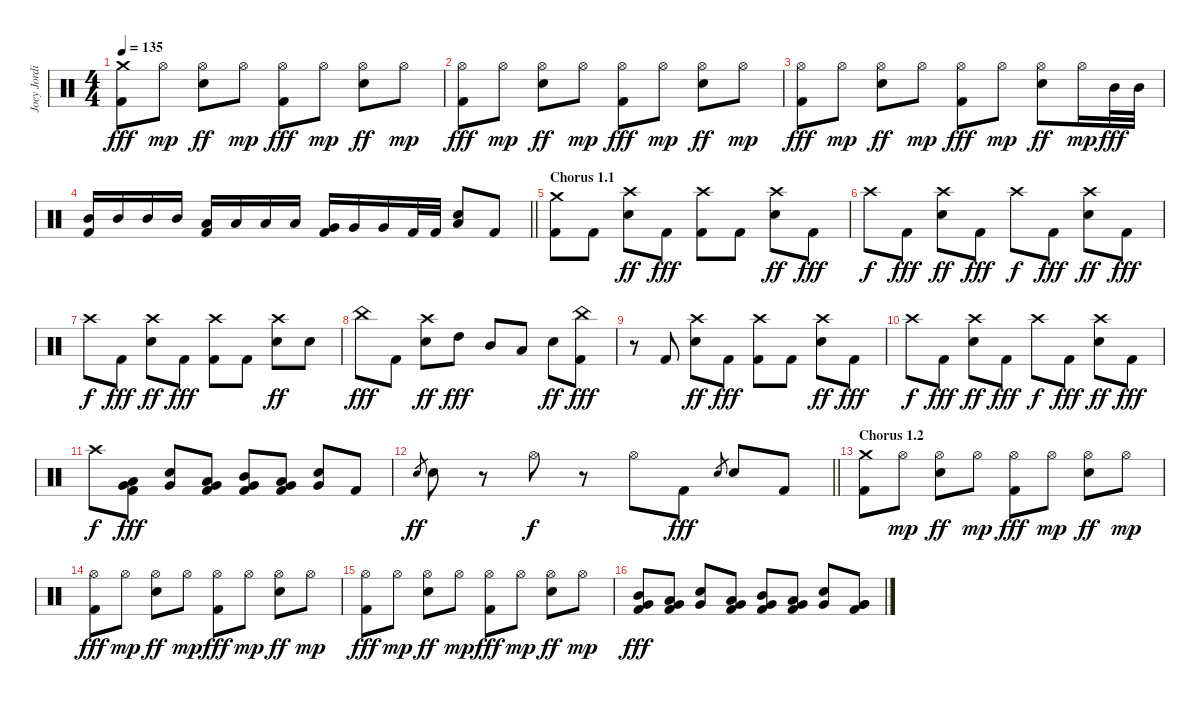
\track ("Joey Jordison" "Joey Jordi") {instrument percussion}
\staff {score}
\articulation defaults
\ts (4 4)
\tempo 135
\clef neutral
\ks c
("Crash medium (hit)" "Kick (hit) 2").8{dy fff} "Hi-Hat (open)".8{dy mp} ("Hi-Hat (open)" "Electric Snare (hit)").8{dy ff} "Hi-Hat (open)".8{dy mp} ("Hi-Hat (open)" "Kick (hit) 2").8{dy fff} "Hi-Hat (open)".8{dy mp} ("Hi-Hat (open)" "Electric Snare (hit)").8{dy ff} "Hi-Hat (open)".8{dy mp} |
("Hi-Hat (open)" "Kick (hit) 2").8{dy fff} "Hi-Hat (open)".8{dy mp} ("Hi-Hat (open)" "Electric Snare (hit)").8{dy ff} "Hi-Hat (open)".8{dy mp} ("Hi-Hat (open)" "Kick (hit) 2").8{dy fff} "Hi-Hat (open)".8{dy mp} ("Hi-Hat (open)" "Electric Snare (hit)").8{dy ff} "Hi-Hat (open)".8{dy mp} |
("Hi-Hat (open)" "Kick (hit) 2").8{dy fff} "Hi-Hat (open)".8{dy mp} ("Hi-Hat (open)" "Electric Snare (hit)").8{dy ff} "Hi-Hat (open)".8{dy mp} ("Hi-Hat (open)" "Kick (hit) 2").8{dy fff} "Hi-Hat (open)".8{dy mp} ("Hi-Hat (open)" "Electric Snare (hit)").8{dy ff} "Hi-Hat (open)".16{dy mp} "Mid Tom (hit)".32{dy fff} "Mid Tom (hit)".32 |
\barLineRight lightlight
("Mid Tom (hit)" "Kick (hit) 2").16 "Mid Tom (hit)".16 "Mid Tom (hit)".16 "Mid Tom (hit)".16 ("Low Tom (hit)" "Kick (hit) 2").16 "Low Tom (hit)".16 "Low Tom (hit)".16 "Low Tom (hit)".16 ("Very Low Tom (hit)" "Kick (hit) 2").16 "Very Low Tom (hit)".16 "Very Low Tom (hit)".16 "Kick (hit) 2".32 "Kick (hit) 2".32 ("Electric Snare (hit)" "Low Floor Tom (hit)").8 "Kick (hit) 2".8 |
\section ("" "Chorus 1.1")
("Crash medium (hit)" "Kick (hit) 2").8 "Kick (hit) 2".8 ("Crash high (hit)" "Electric Snare (hit)").8{dy ff} "Kick (hit) 2".8{dy fff} ("Crash high (hit)" "Kick (hit) 2").8 "Kick (hit) 2".8 ("Crash high (hit)" "Electric Snare (hit)").8{dy ff} "Kick (hit) 2".8{dy fff} |
"Crash high (hit)".8{dy f} "Kick (hit) 2".8{dy fff} ("Crash high (hit)" "Electric Snare (hit)").8{dy ff} "Kick (hit) 2".8{dy fff} "Crash high (hit)".8{dy f} "Kick (hit) 2".8{dy fff} ("Crash high (hit)" "Electric Snare (hit)").8{dy ff} "Kick (hit) 2".8{dy fff} |
"Crash high (hit)".8{dy f} "Kick (hit) 2".8{dy fff} ("Crash high (hit)" "Electric Snare (hit)").8{dy ff} "Kick (hit) 2".8{dy fff} ("Crash high (hit)" "Kick (hit) 2").8 "Kick (hit) 2".8 ("Crash high (hit)" "Electric Snare (hit)").8{dy ff} "Electric Snare (hit)".8 |
"China (hit)".8{dy fff} "Kick (hit) 2".8 ("Crash high (hit)" "Electric Snare (hit)").8{dy ff} "High Tom (hit)".8{dy fff} "Mid Tom (hit)".8 "Low Tom (hit)".8 "Electric Snare (hit)".8{dy ff} ("China (hit)" "Kick (hit) 2").8{dy fff} |
r.8 "Kick (hit) 2".8 ("Crash high (hit)" "Electric Snare (hit)").8{dy ff} "Kick (hit) 2".8{dy fff} ("Crash high (hit)" "Kick (hit) 2").8 "Kick (hit) 2".8 ("Crash high (hit)" "Electric Snare (hit)").8{dy ff} "Kick (hit) 2".8{dy fff} |
"Crash high (hit)".8{dy f} "Kick (hit) 2".8{dy fff} ("Crash high (hit)" "Electric Snare (hit)").8{dy ff} "Kick (hit) 2".8{dy fff} "Crash high (hit)".8{dy f} "Kick (hit) 2".8{dy fff} ("Crash high (hit)" "Electric Snare (hit)").8{dy ff} "Kick (hit) 2".8{dy fff} |
"Crash high (hit)".8{dy f} ("Low Tom (hit)" "Very Low Tom (hit)" "Kick (hit) 2").8{dy fff} ("Electric Snare (hit)" "Very Low Tom (hit)").8 ("Low Tom (hit)" "Very Low Tom (hit)" "Kick (hit) 2").8 ("Mid Tom (hit)" "Very Low Tom (hit)" "Kick (hit) 2").8 ("Low Tom (hit)" "Very Low Tom (hit)" "Kick (hit) 2").8 ("Electric Snare (hit)" "Very Low Tom (hit)").8 "Kick (hit) 2".8 |
\barLineRight lightlight "Electric Snare (hit)".8{gr dy ff} "Electric Snare (hit)".8
r.8 "Hi-Hat (open)".8{dy f} r.8 "Hi-Hat (open)".8 "Kick (hit) 2".8{dy fff} "Electric Snare (hit)".8{gr} "Electric Snare (hit)".8 "Kick (hit) 2".8 |
\section ("" "Chorus 1.2")
("Crash medium (hit)" "Kick (hit) 2").8 "Hi-Hat (open)".8{dy mp} ("Hi-Hat (open)" "Electric Snare (hit)").8{dy ff} "Hi-Hat (open)".8{dy mp} ("Hi-Hat (open)" "Kick (hit) 2").8{dy fff} "Hi-Hat (open)".8{dy mp} ("Hi-Hat (open)" "Electric Snare (hit)").8{dy ff} "Hi-Hat (open)".8{dy mp} |
("Hi-Hat (open)" "Kick (hit) 2").8{dy fff} "Hi-Hat (open)".8{dy mp} ("Hi-Hat (open)" "Electric Snare (hit)").8{dy ff} "Hi-Hat (open)".8{dy mp} ("Hi-Hat (open)" "Kick (hit) 2").8{dy fff} "Hi-Hat (open)".8{dy mp} ("Hi-Hat (open)" "Electric Snare (hit)").8{dy ff} "Hi-Hat (open)".8{dy mp} |
("Hi-Hat (open)" "Kick (hit) 2").8{dy fff} "Hi-Hat (open)".8{dy mp} ("Hi-Hat (open)" "Electric Snare (hit)").8{dy ff} "Hi-Hat (open)".8{dy mp} ("Hi-Hat (open)" "Kick (hit) 2").8{dy fff} "Hi-Hat (open)".8{dy mp} ("Hi-Hat (open)" "Electric Snare (hit)").8{dy ff} "Hi-Hat (open)".8{dy mp} |
("Mid Tom (hit)" "Very Low Tom (hit)" "Kick (hit) 2").8{dy fff} ("Low Tom (hit)" "Very Low Tom (hit)" "Kick (hit) 2").8 ("Electric Snare (hit)" "Very Low Tom (hit)").8 ("Low Tom (hit)" "Very Low Tom (hit)" "Kick (hit) 2").8 ("Mid Tom (hit)" "Very Low Tom (hit)" "Kick (hit) 2").8 ("Low Tom (hit)" "Very Low Tom (hit)" "Kick (hit) 2").8 ("Electric Snare (hit)" "Very Low Tom (hit)").8 ("Very Low Tom (hit)" "Very Low Tom (hit)" "Kick (hit) 2").8
